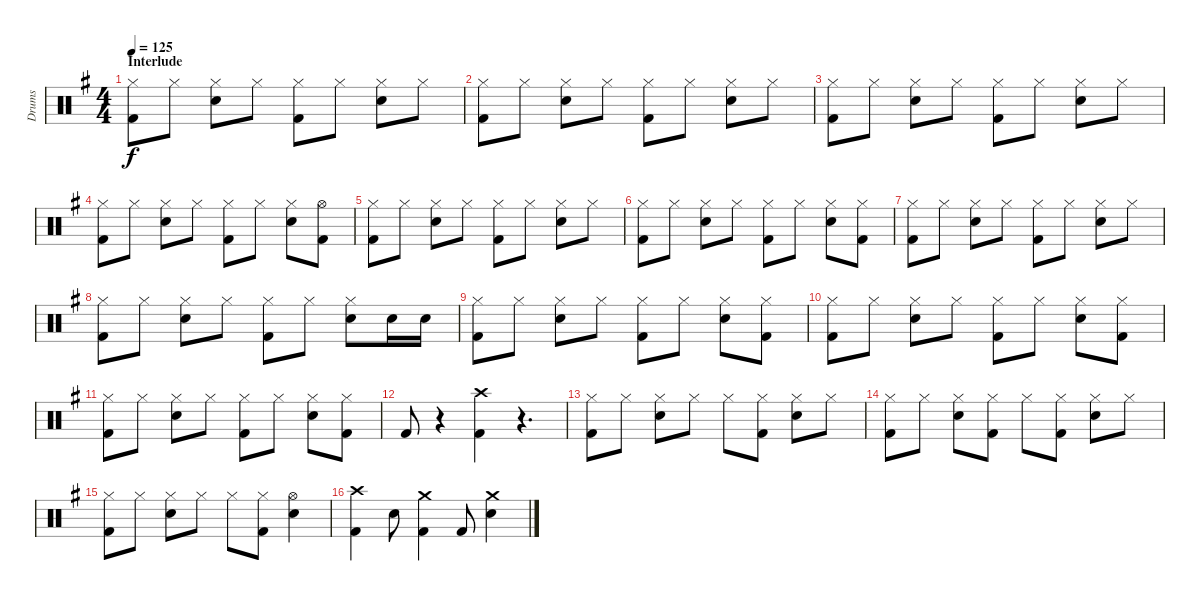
\track ("Drums" "Drums") {instrument percussion}
\staff {score}
\articulation defaults
\ts (4 4)
\section ("" "Interlude")
\tempo 125
\clef neutral
\ks eminor
("Hi-Hat (closed)" "Kick (hit) 2").8{dy f} "Hi-Hat (closed)".8 ("Hi-Hat (closed)" "Electric Snare (hit)").8 "Hi-Hat (closed)".8 ("Hi-Hat (closed)" "Kick (hit) 2").8 "Hi-Hat (closed)".8 ("Hi-Hat (closed)" "Electric Snare (hit)").8 "Hi-Hat (closed)".8 |
("Hi-Hat (closed)" "Kick (hit) 2").8 "Hi-Hat (closed)".8 ("Hi-Hat (closed)" "Electric Snare (hit)").8 "Hi-Hat (closed)".8 ("Hi-Hat (closed)" "Kick (hit) 2").8 "Hi-Hat (closed)".8 ("Hi-Hat (closed)" "Electric Snare (hit)").8 "Hi-Hat (closed)".8 |
("Hi-Hat (closed)" "Kick (hit) 2").8 "Hi-Hat (closed)".8 ("Hi-Hat (closed)" "Electric Snare (hit)").8 "Hi-Hat (closed)".8 ("Hi-Hat (closed)" "Kick (hit) 2").8 "Hi-Hat (closed)".8 ("Hi-Hat (closed)" "Electric Snare (hit)").8 "Hi-Hat (closed)".8 |
("Hi-Hat (closed)" "Kick (hit) 2").8 "Hi-Hat (closed)".8 ("Hi-Hat (closed)" "Electric Snare (hit)").8 "Hi-Hat (closed)".8 ("Hi-Hat (closed)" "Kick (hit) 2").8 "Hi-Hat (closed)".8 ("Hi-Hat (closed)" "Electric Snare (hit)").8 ("Hi-Hat (open)" "Kick (hit) 2").8 |
("Hi-Hat (closed)" "Kick (hit) 2").8 "Hi-Hat (closed)".8 ("Hi-Hat (closed)" "Electric Snare (hit)").8 "Hi-Hat (closed)".8 ("Hi-Hat (closed)" "Kick (hit) 2").8 "Hi-Hat (closed)".8 ("Hi-Hat (closed)" "Electric Snare (hit)").8 "Hi-Hat (closed)".8 |
("Hi-Hat (closed)" "Kick (hit) 2").8 "Hi-Hat (closed)".8 ("Hi-Hat (closed)" "Electric Snare (hit)").8 "Hi-Hat (closed)".8 ("Hi-Hat (closed)" "Kick (hit) 2").8 "Hi-Hat (closed)".8 ("Hi-Hat (closed)" "Electric Snare (hit)").8 ("Hi-Hat (closed)" "Kick (hit) 2").8 |
("Hi-Hat (closed)" "Kick (hit) 2").8 "Hi-Hat (closed)".8 ("Hi-Hat (closed)" "Electric Snare (hit)").8 "Hi-Hat (closed)".8 ("Hi-Hat (closed)" "Kick (hit) 2").8 "Hi-Hat (closed)".8 ("Hi-Hat (closed)" "Electric Snare (hit)").8 "Hi-Hat (closed)".8 |
("Hi-Hat (closed)" "Kick (hit) 2").8 "Hi-Hat (closed)".8 ("Hi-Hat (closed)" "Electric Snare (hit)").8 "Hi-Hat (closed)".8 ("Hi-Hat (closed)" "Kick (hit) 2").8 "Hi-Hat (closed)".8 ("Hi-Hat (closed)" "Electric Snare (hit)").8 "Electric Snare (hit)".16 "Electric Snare (hit)".16 |
("Hi-Hat (closed)" "Kick (hit) 2").8 "Hi-Hat (closed)".8 ("Hi-Hat (closed)" "Electric Snare (hit)").8 "Hi-Hat (closed)".8 ("Hi-Hat (closed)" "Kick (hit) 2").8 "Hi-Hat (closed)".8 ("Hi-Hat (closed)" "Electric Snare (hit)").8 ("Hi-Hat (closed)" "Kick (hit) 2").8 |
("Hi-Hat (closed)" "Kick (hit) 2").8 "Hi-Hat (closed)".8 ("Hi-Hat (closed)" "Electric Snare (hit)").8 "Hi-Hat (closed)".8 ("Hi-Hat (closed)" "Kick (hit) 2").8 "Hi-Hat (closed)".8 ("Hi-Hat (closed)" "Electric Snare (hit)").8 ("Hi-Hat (closed)" "Kick (hit) 2").8 |
("Hi-Hat (closed)" "Kick (hit) 2").8 "Hi-Hat (closed)".8 ("Hi-Hat (closed)" "Electric Snare (hit)").8 "Hi-Hat (closed)".8 ("Hi-Hat (closed)" "Kick (hit) 2").8 "Hi-Hat (closed)".8 ("Hi-Hat (closed)" "Electric Snare (hit)").8 ("Hi-Hat (closed)" "Kick (hit) 2").8 |
"Kick (hit) 2".8 r.4 ("Crash high (hit)" "Kick (hit) 2").4 r.4{d} |
("Hi-Hat (closed)" "Kick (hit) 2").8 "Hi-Hat (closed)".8 ("Hi-Hat (closed)" "Electric Snare (hit)").8 "Hi-Hat (closed)".8 "Hi-Hat (closed)".8 ("Hi-Hat (closed)" "Kick (hit) 2").8 ("Hi-Hat (closed)" "Electric Snare (hit)").8 "Hi-Hat (closed)".8 |
("Hi-Hat (closed)" "Kick (hit) 2").8 "Hi-Hat (closed)".8 ("Hi-Hat (closed)" "Electric Snare (hit)").8 ("Hi-Hat (closed)" "Kick (hit) 2").8 "Hi-Hat (closed)".8 ("Hi-Hat (closed)" "Kick (hit) 2").8 ("Hi-Hat (closed)" "Electric Snare (hit)").8 "Hi-Hat (closed)".8 |
("Hi-Hat (closed)" "Kick (hit) 2").8 "Hi-Hat (closed)".8 ("Hi-Hat (closed)" "Electric Snare (hit)").8 "Hi-Hat (closed)".8 "Hi-Hat (closed)".8 ("Hi-Hat (closed)" "Kick (hit) 2").8 ("Hi-Hat (open)" "Electric Snare (hit)").4 |
("Crash high (hit)" "Kick (hit) 2").4 "Electric Snare (hit)".8 ("Crash medium (hit)" "Kick (hit) 2").4 "Kick (hit) 2".8 ("Crash medium (hit)" "Electric Snare (hit)").4
